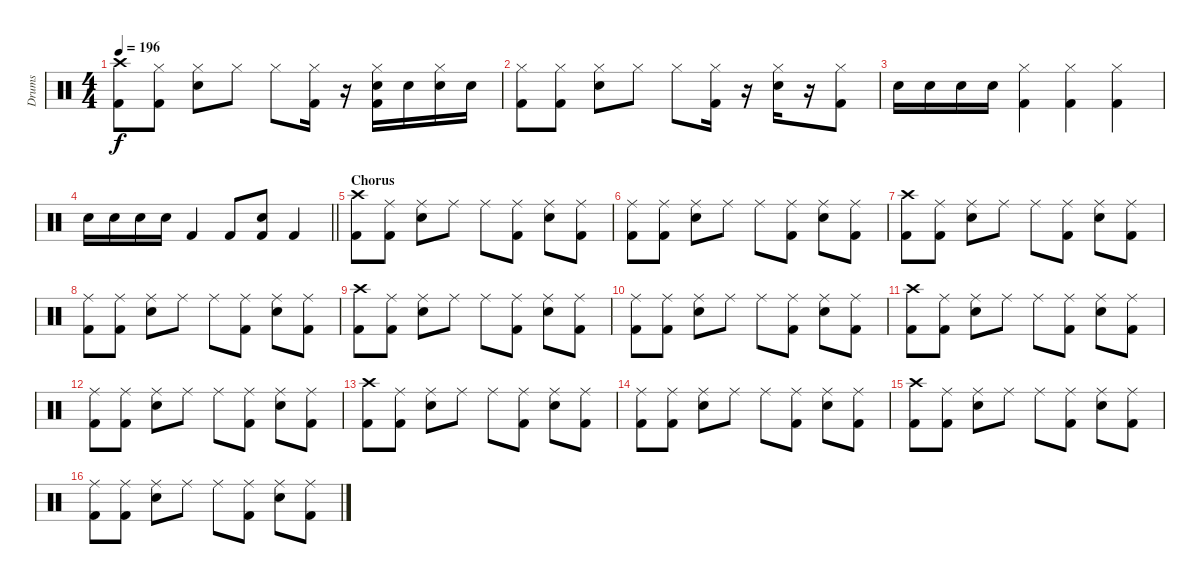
\track ("Drums" "Drums") {instrument percussion}
\staff {score}
\articulation defaults
\ts (4 4)
\tempo 196
\clef neutral
\ks c
("Crash high (hit)" "Kick (hit) 2").8{dy f} ("Hi-Hat (closed)" "Kick (hit) 2").8 ("Hi-Hat (closed)" "Electric Snare (hit)").8 "Hi-Hat (closed)".8 "Hi-Hat (closed)".8 ("Hi-Hat (closed)" "Kick (hit) 2").16 r.16 ("Hi-Hat (closed)" "Electric Snare (hit)" "Kick (hit) 2").16 "Electric Snare (hit)".16 ("Hi-Hat (closed)" "Electric Snare (hit)").16 "Electric Snare (hit)".16 |
("Hi-Hat (closed)" "Kick (hit) 2").8 ("Hi-Hat (closed)" "Kick (hit) 2").8 ("Hi-Hat (closed)" "Electric Snare (hit)").8 "Hi-Hat (closed)".8 "Hi-Hat (closed)".8 ("Hi-Hat (closed)" "Kick (hit) 2").16 r.16 ("Hi-Hat (closed)" "Electric Snare (hit)").16 r.16 ("Hi-Hat (closed)" "Kick (hit) 2").8 |
"Electric Snare (hit)".16 "Electric Snare (hit)".16 "Electric Snare (hit)".16 "Electric Snare (hit)".16 ("Hi-Hat (closed)" "Kick (hit) 2").4 ("Hi-Hat (closed)" "Kick (hit) 2").4 ("Hi-Hat (closed)" "Kick (hit) 2").4 |
\barLineRight lightlight "Electric Snare (hit)".16 "Electric Snare (hit)".16 "Electric Snare (hit)".16 "Electric Snare (hit)".16 "Kick (hit) 2".4 "Kick (hit) 2".8
("Electric Snare (hit)" "Kick (hit) 2").8 "Kick (hit) 2".4 |
\section ("" "Chorus")
("Crash high (hit)" "Kick (hit) 2").8 ("Ride (middle)" "Kick (hit) 2").8 ("Ride (middle)" "Electric Snare (hit)").8 "Ride (middle)".8 "Ride (middle)".8 ("Ride (middle)" "Kick (hit) 2").8 ("Ride (middle)" "Electric Snare (hit)").8 ("Ride (middle)" "Kick (hit) 2").8 |
("Ride (middle)" "Kick (hit) 2").8 ("Ride (middle)" "Kick (hit) 2").8 ("Ride (middle)" "Electric Snare (hit)").8 "Ride (middle)".8 "Ride (middle)".8 ("Ride (middle)" "Kick (hit) 2").8 ("Ride (middle)" "Electric Snare (hit)").8 ("Ride (middle)" "Kick (hit) 2").8 |
("Crash high (hit)" "Kick (hit) 2").8 ("Ride (middle)" "Kick (hit) 2").8 ("Ride (middle)" "Electric Snare (hit)").8 "Ride (middle)".8 "Ride (middle)".8 ("Ride (middle)" "Kick (hit) 2").8 ("Ride (middle)" "Electric Snare (hit)").8 ("Ride (middle)" "Kick (hit) 2").8 |
("Ride (middle)" "Kick (hit) 2").8 ("Ride (middle)" "Kick (hit) 2").8 ("Ride (middle)" "Electric Snare (hit)").8 "Ride (middle)".8 "Ride (middle)".8 ("Ride (middle)" "Kick (hit) 2").8 ("Ride (middle)" "Electric Snare (hit)").8 ("Ride (middle)" "Kick (hit) 2").8 |
("Crash high (hit)" "Kick (hit) 2").8 ("Ride (middle)" "Kick (hit) 2").8 ("Ride (middle)" "Electric Snare (hit)").8 "Ride (middle)".8 "Ride (middle)".8 ("Ride (middle)" "Kick (hit) 2").8 ("Ride (middle)" "Electric Snare (hit)").8 ("Ride (middle)" "Kick (hit) 2").8 |
("Ride (middle)" "Kick (hit) 2").8 ("Ride (middle)" "Kick (hit) 2").8 ("Ride (middle)" "Electric Snare (hit)").8 "Ride (middle)".8 "Ride (middle)".8 ("Ride (middle)" "Kick (hit) 2").8 ("Ride (middle)" "Electric Snare (hit)").8 ("Ride (middle)" "Kick (hit) 2").8 |
("Crash high (hit)" "Kick (hit) 2").8 ("Ride (middle)" "Kick (hit) 2").8 ("Ride (middle)" "Electric Snare (hit)").8 "Ride (middle)".8 "Ride (middle)".8 ("Ride (middle)" "Kick (hit) 2").8 ("Ride (middle)" "Electric Snare (hit)").8 ("Ride (middle)" "Kick (hit) 2").8 |
("Ride (middle)" "Kick (hit) 2").8 ("Ride (middle)" "Kick (hit) 2").8 ("Ride (middle)" "Electric Snare (hit)").8 "Ride (middle)".8 "Ride (middle)".8 ("Ride (middle)" "Kick (hit) 2").8 ("Ride (middle)" "Electric Snare (hit)").8 ("Ride (middle)" "Kick (hit) 2").8 |
("Crash high (hit)" "Kick (hit) 2").8 ("Ride (middle)" "Kick (hit) 2").8 ("Ride (middle)" "Electric Snare (hit)").8 "Ride (middle)".8 "Ride (middle)".8 ("Ride (middle)" "Kick (hit) 2").8 ("Ride (middle)" "Electric Snare (hit)").8 ("Ride (middle)" "Kick (hit) 2").8 |
("Ride (middle)" "Kick (hit) 2").8 ("Ride (middle)" "Kick (hit) 2").8 ("Ride (middle)" "Electric Snare (hit)").8 "Ride (middle)".8 "Ride (middle)".8 ("Ride (middle)" "Kick (hit) 2").8 ("Ride (middle)" "Electric Snare (hit)").8 ("Ride (middle)" "Kick (hit) 2").8 |
("Crash high (hit)" "Kick (hit) 2").8 ("Ride (middle)" "Kick (hit) 2").8 ("Ride (middle)" "Electric Snare (hit)").8 "Ride (middle)".8 "Ride (middle)".8 ("Ride (middle)" "Kick (hit) 2").8 ("Ride (middle)" "Electric Snare (hit)").8 ("Ride (middle)" "Kick (hit) 2").8 |
("Ride (middle)" "Kick (hit) 2").8 ("Ride (middle)" "Kick (hit) 2").8 ("Ride (middle)" "Electric Snare (hit)").8 "Ride (middle)".8 "Ride (middle)".8 ("Ride (middle)" "Kick (hit) 2").8 ("Ride (middle)" "Electric Snare (hit)").8 ("Ride (middle)" "Kick (hit) 2").8
